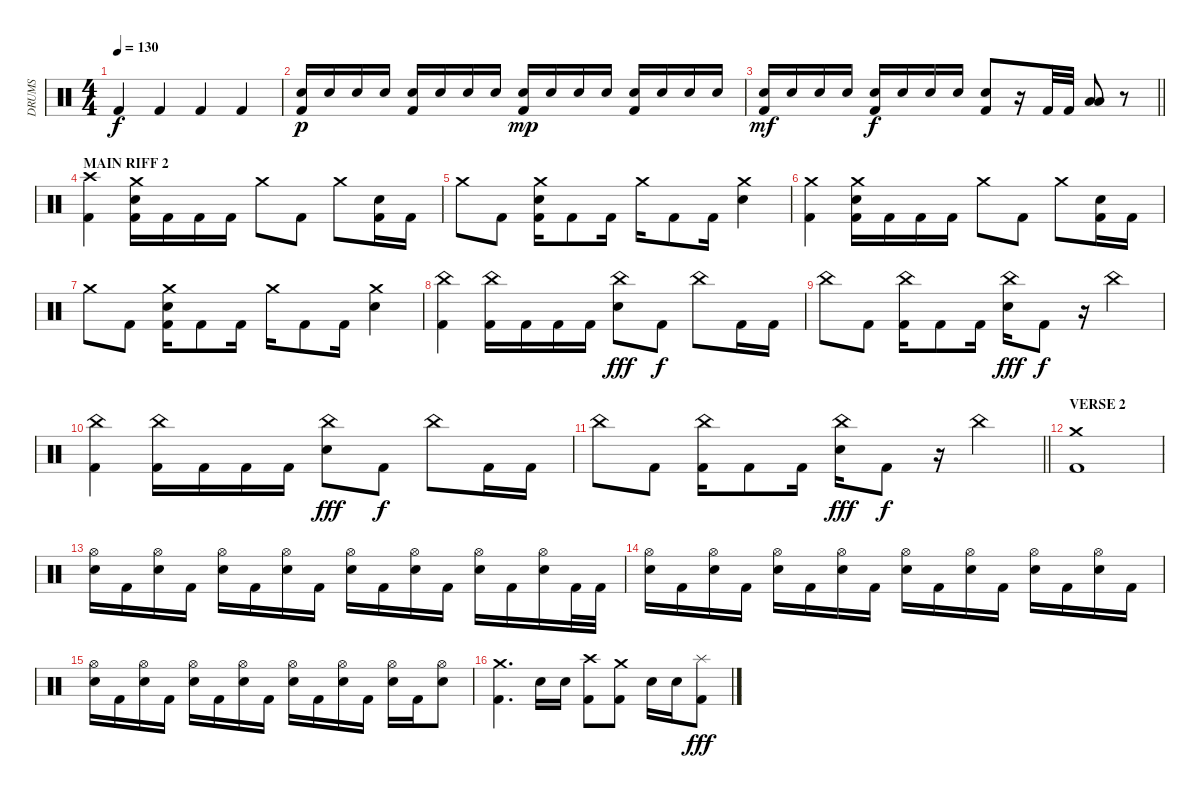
\track ("DRUMS" "DRUMS") {instrument percussion}
\staff {score}
\articulation defaults
\ts (4 4)
\tempo 130
\clef neutral
\ks c "Kick (hit) 2".4{dy f} "Kick (hit) 2".4 "Kick (hit) 2".4 "Kick (hit) 2".4
|
("Electric Snare (hit)" "Kick (hit) 2").16{dy p} "Electric Snare (hit)".16 "Electric Snare (hit)".16 "Electric Snare (hit)".16 ("Electric Snare (hit)" "Kick (hit) 2").16 "Electric Snare (hit)".16 "Electric Snare (hit)".16 "Electric Snare (hit)".16 ("Electric Snare (hit)" "Kick (hit) 2").16{dy mp} "Electric Snare (hit)".16 "Electric Snare (hit)".16 "Electric Snare (hit)".16 ("Electric Snare (hit)" "Kick (hit) 2").16 "Electric Snare (hit)".16 "Electric Snare (hit)".16 "Electric Snare (hit)".16 |
\barLineRight lightlight
("Electric Snare (hit)" "Kick (hit) 2").16{dy mf} "Electric Snare (hit)".16 "Electric Snare (hit)".16 "Electric Snare (hit)".16 ("Electric Snare (hit)" "Kick (hit) 2").16{dy f} "Electric Snare (hit)".16 "Electric Snare (hit)".16 "Electric Snare (hit)".16 ("Electric Snare (hit)" "Kick (hit) 2").8 r.16 "Kick (hit) 2".32 "Kick (hit) 2".32 ("Low Tom (hit)" "Low Floor Tom (hit)").8 r.8 |
\section ("" "MAIN RIFF 2")
("Crash high (hit)" "Kick (hit) 2").4 ("Crash medium (hit)" "Electric Snare (hit)" "Kick (hit) 2").16 "Kick (hit) 2".16 "Kick (hit) 2".16 "Kick (hit) 2".16 "Crash medium (hit)".8 "Kick (hit) 2".8 "Crash medium (hit)".8 ("Electric Snare (hit)" "Kick (hit) 2").16 "Kick (hit) 2".16 |
"Crash medium (hit)".8 "Kick (hit) 2".8 ("Crash medium (hit)" "Electric Snare (hit)" "Kick (hit) 2").16 "Kick (hit) 2".8 "Kick (hit) 2".16 "Crash medium (hit)".16 "Kick (hit) 2".8 "Kick (hit) 2".16 ("Crash medium (hit)" "Electric Snare (hit)").4 |
("Crash medium (hit)" "Kick (hit) 2").4 ("Crash medium (hit)" "Electric Snare (hit)" "Kick (hit) 2").16 "Kick (hit) 2".16 "Kick (hit) 2".16 "Kick (hit) 2".16 "Crash medium (hit)".8 "Kick (hit) 2".8 "Crash medium (hit)".8 ("Electric Snare (hit)" "Kick (hit) 2").16 "Kick (hit) 2".16 |
"Crash medium (hit)".8 "Kick (hit) 2".8 ("Crash medium (hit)" "Electric Snare (hit)" "Kick (hit) 2").16 "Kick (hit) 2".8 "Kick (hit) 2".16 "Crash medium (hit)".16 "Kick (hit) 2".8 "Kick (hit) 2".16 ("Crash medium (hit)" "Electric Snare (hit)").4 |
("China (hit)" "Kick (hit) 2").4 ("China (hit)" "Kick (hit) 2").16 "Kick (hit) 2".16 "Kick (hit) 2".16 "Kick (hit) 2".16 ("China (hit)" "Electric Snare (hit)").8{dy fff} "Kick (hit) 2".8{dy f} "China (hit)".8 "Kick (hit) 2".16 "Kick (hit) 2".16 |
"China (hit)".8 "Kick (hit) 2".8 ("China (hit)" "Kick (hit) 2").16 "Kick (hit) 2".8 "Kick (hit) 2".16 ("China (hit)" "Electric Snare (hit)").16{dy fff} "Kick (hit) 2".8{dy f} r.16 "China (hit)".4 |
("China (hit)" "Kick (hit) 2").4 ("China (hit)" "Kick (hit) 2").16 "Kick (hit) 2".16 "Kick (hit) 2".16 "Kick (hit) 2".16 ("China (hit)" "Electric Snare (hit)").8{dy fff} "Kick (hit) 2".8{dy f} "China (hit)".8 "Kick (hit) 2".16 "Kick (hit) 2".16 |
\barLineRight lightlight "China (hit)".8 "Kick (hit) 2".8
("China (hit)" "Kick (hit) 2").16 "Kick (hit) 2".8 "Kick (hit) 2".16 ("China (hit)" "Electric Snare (hit)").16{dy fff} "Kick (hit) 2".8{dy f} r.16 "China (hit)".4 |
\section ("" "VERSE 2")
("Crash medium (hit)" "Kick (hit) 2").1 |
("Hi-Hat (open)" "Electric Snare (hit)").16 "Kick (hit) 2".16 ("Hi-Hat (open)" "Electric Snare (hit)").16 "Kick (hit) 2".16 ("Hi-Hat (open)" "Electric Snare (hit)").16 "Kick (hit) 2".16 ("Hi-Hat (open)" "Electric Snare (hit)").16 "Kick (hit) 2".16 ("Hi-Hat (open)" "Electric Snare (hit)").16 "Kick (hit) 2".16 ("Hi-Hat (open)" "Electric Snare (hit)").16 "Kick (hit) 2".16 ("Hi-Hat (open)" "Electric Snare (hit)").16 "Kick (hit) 2".16 ("Hi-Hat (open)" "Electric Snare (hit)").16 "Kick (hit) 2".32 "Kick (hit) 2".32 |
("Hi-Hat (open)" "Electric Snare (hit)").16 "Kick (hit) 2".16 ("Hi-Hat (open)" "Electric Snare (hit)").16 "Kick (hit) 2".16 ("Hi-Hat (open)" "Electric Snare (hit)").16 "Kick (hit) 2".16 ("Hi-Hat (open)" "Electric Snare (hit)").16 "Kick (hit) 2".16 ("Hi-Hat (open)" "Electric Snare (hit)").16 "Kick (hit) 2".16 ("Hi-Hat (open)" "Electric Snare (hit)").16 "Kick (hit) 2".16 ("Hi-Hat (open)" "Electric Snare (hit)").16 "Kick (hit) 2".16 ("Hi-Hat (open)" "Electric Snare (hit)").16 "Kick (hit) 2".16 |
("Hi-Hat (open)" "Electric Snare (hit)").16 "Kick (hit) 2".16 ("Hi-Hat (open)" "Electric Snare (hit)").16 "Kick (hit) 2".16 ("Hi-Hat (open)" "Electric Snare (hit)").16 "Kick (hit) 2".16 ("Hi-Hat (open)" "Electric Snare (hit)").16 "Kick (hit) 2".16 ("Hi-Hat (open)" "Electric Snare (hit)").16 "Kick (hit) 2".16 ("Hi-Hat (open)" "Electric Snare (hit)").16 "Kick (hit) 2".16 ("Hi-Hat (open)" "Electric Snare (hit)").16 "Kick (hit) 2".16 ("Hi-Hat (open)" "Electric Snare (hit)").8 |
("Crash medium (hit)" "Kick (hit) 2").4{d} "Electric Snare (hit)".16 "Electric Snare (hit)".16 ("Crash high (hit)" "Kick (hit) 2").8 ("Crash medium (hit)" "Kick (hit) 2").8 "Electric Snare (hit)".16 "Electric Snare (hit)".16 ("Splash (hit)" "Kick (hit) 2").8{dy fff}
